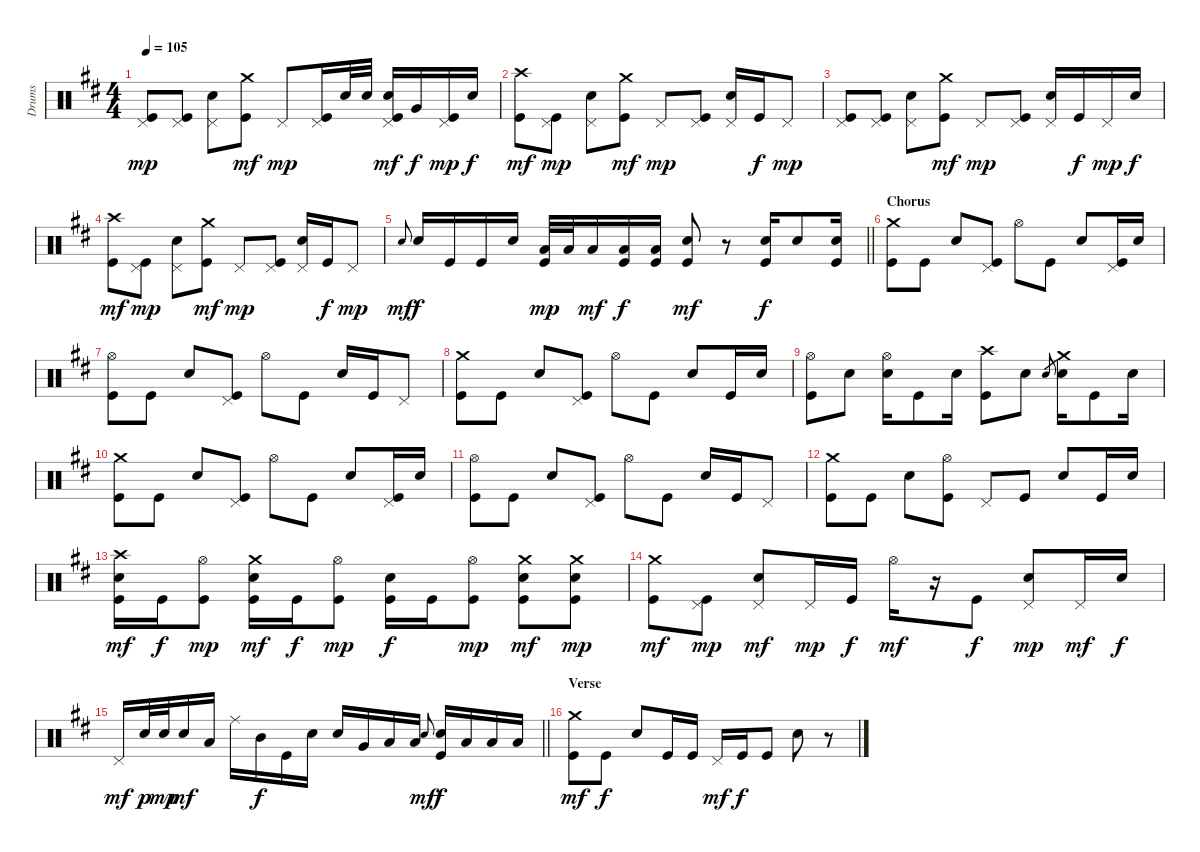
\track ("Drums" "Drums") {instrument percussion}
\staff {score}
\articulation defaults
\ts (4 4)
\tempo 105
\clef neutral
\ks d
("Pedal Hi-Hat (hit)" "Kick (hit)").8{dy mp} ("Pedal Hi-Hat (hit)" "Kick (hit)").8 ("Pedal Hi-Hat (hit)" "Snare (hit) 2").8 ("Crash medium (hit)" "Kick (hit)").8{dy mf} "Pedal Hi-Hat (hit)".8{dy mp} ("Pedal Hi-Hat (hit)" "Kick (hit)").16 "Snare (hit) 2".32 "Snare (hit) 2".32 ("Pedal Hi-Hat (hit)" "Snare (hit) 2" "Kick (hit)").16{dy mf} "Very Low Tom (hit)".16{dy f} ("Pedal Hi-Hat (hit)" "Kick (hit)").16{dy mp} "Snare (hit) 2".16{dy f} |
("Crash high (hit)" "Kick (hit)").8{dy mf} ("Pedal Hi-Hat (hit)" "Kick (hit)").8{dy mp} ("Pedal Hi-Hat (hit)" "Snare (hit) 2").8 ("Crash medium (hit)" "Kick (hit)").8{dy mf} "Pedal Hi-Hat (hit)".8{dy mp} ("Pedal Hi-Hat (hit)" "Kick (hit)").8 ("Pedal Hi-Hat (hit)" "Snare (hit) 2").16 "Kick (hit)".16{dy f} "Pedal Hi-Hat (hit)".8{dy mp} |
("Pedal Hi-Hat (hit)" "Kick (hit)").8 ("Pedal Hi-Hat (hit)" "Kick (hit)").8 ("Pedal Hi-Hat (hit)" "Snare (hit) 2").8 ("Crash medium (hit)" "Kick (hit)").8{dy mf} "Pedal Hi-Hat (hit)".8{dy mp} ("Pedal Hi-Hat (hit)" "Kick (hit)").8 ("Pedal Hi-Hat (hit)" "Snare (hit) 2").16 "Kick (hit)".16{dy f} "Pedal Hi-Hat (hit)".16{dy mp} "Snare (hit) 2".16{dy f} |
("Crash high (hit)" "Kick (hit)").8{dy mf} ("Pedal Hi-Hat (hit)" "Kick (hit)").8{dy mp} ("Pedal Hi-Hat (hit)" "Snare (hit) 2").8 ("Crash medium (hit)" "Kick (hit)").8{dy mf} "Pedal Hi-Hat (hit)".8{dy mp} ("Pedal Hi-Hat (hit)" "Kick (hit)").8 ("Pedal Hi-Hat (hit)" "Snare (hit) 2").16 "Kick (hit)".16{dy f} "Pedal Hi-Hat (hit)".8{dy mp} |
\barLineRight lightlight "Snare (hit) 2".8{gr onbeat dy mf} "Snare (hit) 2".16{dy f} "Kick (hit)".16 "Kick (hit)".16 "Snare (hit) 2".16
("Low Floor Tom (hit)" "Kick (hit)").32{dy mp} "Low Floor Tom (hit)".32 "Low Floor Tom (hit)".16{dy mf} ("Low Floor Tom (hit)" "Kick (hit)").16{dy f} ("Low Floor Tom (hit)" "Kick (hit)").16 ("Snare (hit) 2" "Kick (hit)").8{dy mf} r.8 ("Snare (hit) 2" "Kick (hit)").16{dy f} "Snare (hit) 2".8 ("Snare (hit) 2" "Kick (hit)").16 |
\section ("" "Chorus")
("Crash medium (hit)" "Kick (hit)").8 "Kick (hit)".8 "Snare (hit) 2".8 ("Pedal Hi-Hat (hit)" "Kick (hit)").8 "Hi-Hat (open)".8 "Kick (hit)".8 "Snare (hit) 2".8 ("Pedal Hi-Hat (hit)" "Kick (hit)").16 "Snare (hit) 2".16 |
("Hi-Hat (open)" "Kick (hit)").8 "Kick (hit)".8 "Snare (hit) 2".8 ("Pedal Hi-Hat (hit)" "Kick (hit)").8 "Hi-Hat (open)".8 "Kick (hit)".8 "Snare (hit) 2".16 "Kick (hit)".16 "Pedal Hi-Hat (hit)".8 |
("Crash medium (hit)" "Kick (hit)").8 "Kick (hit)".8 "Snare (hit) 2".8 ("Pedal Hi-Hat (hit)" "Kick (hit)").8 "Hi-Hat (open)".8 "Kick (hit)".8 "Snare (hit) 2".8 "Kick (hit)".16 "Snare (hit) 2".16 |
("Hi-Hat (open)" "Kick (hit)").8 "Snare (hit) 2".8 ("Hi-Hat (open)" "Snare (hit) 2").16 "Kick (hit)".8 "Snare (hit) 2".16 ("Crash high (hit)" "Kick (hit)").8 "Snare (hit) 2".8 "Snare (hit) 2".8{gr} ("Crash medium (hit)" "Snare (hit) 2").16 "Kick (hit)".8 "Snare (hit) 2".16 |
("Crash medium (hit)" "Kick (hit)").8 "Kick (hit)".8 "Snare (hit) 2".8 ("Pedal Hi-Hat (hit)" "Kick (hit)").8 "Hi-Hat (open)".8 "Kick (hit)".8 "Snare (hit) 2".8 ("Pedal Hi-Hat (hit)" "Kick (hit)").16 "Snare (hit) 2".16 |
("Hi-Hat (open)" "Kick (hit)").8 "Kick (hit)".8 "Snare (hit) 2".8 ("Pedal Hi-Hat (hit)" "Kick (hit)").8 "Hi-Hat (open)".8 "Kick (hit)".8 "Snare (hit) 2".16 "Kick (hit)".16 "Pedal Hi-Hat (hit)".8 |
("Crash medium (hit)" "Kick (hit)").8 "Kick (hit)".8 "Snare (hit) 2".8 ("Hi-Hat (open)" "Kick (hit)").8 "Pedal Hi-Hat (hit)".8 "Kick (hit)".8 "Snare (hit) 2".8 "Kick (hit)".16 "Snare (hit) 2".16 |
("Crash high (hit)" "Snare (hit) 2" "Kick (hit)").16{dy mf} "Kick (hit)".16{dy f} ("Hi-Hat (open)" "Kick (hit)").8{dy mp} ("Crash medium (hit)" "Snare (hit) 2" "Kick (hit)").16{dy mf} "Kick (hit)".16{dy f} ("Hi-Hat (open)" "Kick (hit)").8{dy mp} ("Snare (hit) 2" "Kick (hit)").16{dy f} "Kick (hit)".16 ("Hi-Hat (open)" "Kick (hit)").8{dy mp} ("Crash medium (hit)" "Snare (hit) 2" "Kick (hit)").8{dy mf} ("Crash medium (hit)" "Snare (hit) 2" "Kick (hit)").8{dy mp} |
("Crash medium (hit)" "Kick (hit)").8{dy mf} ("Pedal Hi-Hat (hit)" "Kick (hit)").8{dy mp} ("Pedal Hi-Hat (hit)" "Snare (hit) 2").8{dy mf} "Pedal Hi-Hat (hit)".16{dy mp} "Kick (hit)".16{dy f} "Hi-Hat (open)".16{dy mf} r.16 "Kick (hit)".8{dy f} ("Pedal Hi-Hat (hit)" "Snare (hit) 2").8{dy mp} "Pedal Hi-Hat (hit)".16{dy mf} "Snare (hit) 2".16{dy f} |
\barLineRight lightlight "Pedal Hi-Hat (hit)".16{dy mf} "Snare (hit) 2".32{dy p} "Snare (hit) 2".32{dy mp} "Snare (hit) 2".16{dy mf} "Low Floor Tom (hit)".16 "Ride (middle)".16 "Mid Tom (hit)".16{dy f} "Kick (hit)".16 "Snare (hit) 2".16 "Snare (hit) 2".16 "Very Low Tom (hit)".16 "Low Floor Tom (hit)".16 "Low Floor Tom (hit)".16 "Snare (hit) 2".8{gr onbeat dy mf}
("Snare (hit) 2" "Kick (hit)").16{dy f} "Low Floor Tom (hit)".16 "Low Floor Tom (hit)".16 "Low Floor Tom (hit)".16 |
\section ("" "Verse")
("Crash medium (hit)" "Kick (hit)").8{dy mf} "Kick (hit)".8{dy f} "Snare (hit) 2".8 "Kick (hit)".16 "Kick (hit)".16 "Pedal Hi-Hat (hit)".16{dy mf} "Kick (hit)".16{dy f} "Kick (hit)".8 "Snare (hit) 2".8 r.8
